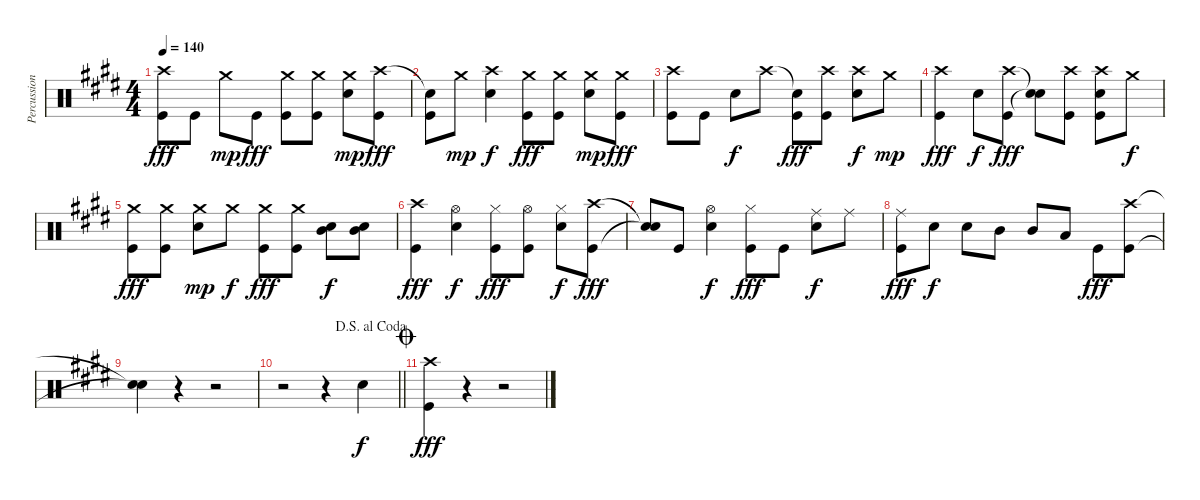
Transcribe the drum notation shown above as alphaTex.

\track ("Percussion" "Percussion") {instrument percussion}
\staff {score}
\articulation defaults
\ts (4 4)
\tempo 140
\clef neutral
\ks e
("Crash high (hit)" "Kick (hit)").8{dy fff} "Kick (hit)".8 "Crash medium (hit)".8{dy mp} "Kick (hit)".8{dy fff} ("Crash medium (hit)" "Kick (hit)").8 ("Crash medium (hit)" "Kick (hit)").8 ("Crash medium (hit)" "Snare (hit) 2").8{dy mp} ("Crash high (hit)" "Kick (hit)").8{dy fff} |
("Snare (hit)"{t} "Kick (hit)").8 "Crash medium (hit)".8{dy mp} ("Crash high (hit)" "Snare (hit) 2").4{dy f} ("Crash medium (hit)" "Kick (hit)").8{dy fff} ("Crash medium (hit)" "Kick (hit)").8 ("Crash medium (hit)" "Snare (hit) 2").8{dy mp} ("Crash medium (hit)" "Kick (hit)").8{dy fff} |
("Crash high (hit)" "Kick (hit)").8 "Kick (hit)".8 "Snare (hit) 2".8{dy f} "Crash high (hit)".8 ("Snare (hit)"{t} "Kick (hit)").8{dy fff} ("Crash high (hit)" "Kick (hit)").8 ("Crash high (hit)" "Snare (hit) 2").8{dy f} "Crash medium (hit)".8{dy mp} |
("Crash high (hit)" "Kick (hit)").4{dy fff} "Snare (hit) 2".8{dy f} ("Crash high (hit)" "Kick (hit)").8{dy fff} ("Snare (hit)"{t} "Snare (hit)"{t}).8 ("Crash high (hit)" "Kick (hit)").8 ("Crash high (hit)" "Snare (hit) 2" "Kick (hit)").8 "Crash medium (hit)".8{dy f} |
("Crash medium (hit)" "Kick (hit)").8{dy fff} ("Crash medium (hit)" "Kick (hit)").8 ("Crash medium (hit)" "Snare (hit) 2").8{dy mp} "Crash medium (hit)".8{dy f} ("Crash medium (hit)" "Kick (hit)").8{dy fff} ("Crash medium (hit)" "Kick (hit)").8 ("Mid Tom (hit)" "Snare (hit) 2").8{dy f} ("Mid Tom (hit)" "Snare (hit) 2").8 |
("Crash high (hit)" "Kick (hit)").4{dy fff} ("Hi-Hat (open)" "Snare (hit) 2").4{dy f} ("Hi-Hat (closed)" "Kick (hit)").8{dy fff} ("Hi-Hat (open)" "Kick (hit)").8 ("Hi-Hat (closed)" "Snare (hit) 2").8{dy f} ("Crash high (hit)" "Kick (hit)").8{dy fff} |
("Snare (hit)"{t} "Snare (hit)"{t}).8 "Kick (hit)".8 ("Hi-Hat (open)" "Snare (hit) 2").4{dy f} ("Hi-Hat (closed)" "Kick (hit)").8{dy fff} "Kick (hit)".8 ("Ride (middle)" "Snare (hit) 2").8{dy f} "Ride (middle)".8 |
("Ride (middle)" "Kick (hit)").8{dy fff} "Snare (hit) 2".8{dy f} "Snare (hit) 2".8 "Mid Tom (hit)".8 "Mid Tom (hit)".8 "Low Tom (hit)".8 "Kick (hit)".8{dy fff} ("Crash high (hit)" "Kick (hit)").8 |
("Snare (hit)"{t} "Snare (hit)"{t}).4 r.4 r.2 |
\jump dalsegnoalcoda
\barLineRight lightlight
r.2 r.4 "Snare (hit) 2".4{dy f} |
\jump coda
("Crash high (hit)" "Kick (hit)").4{dy fff} r.4 r.2
